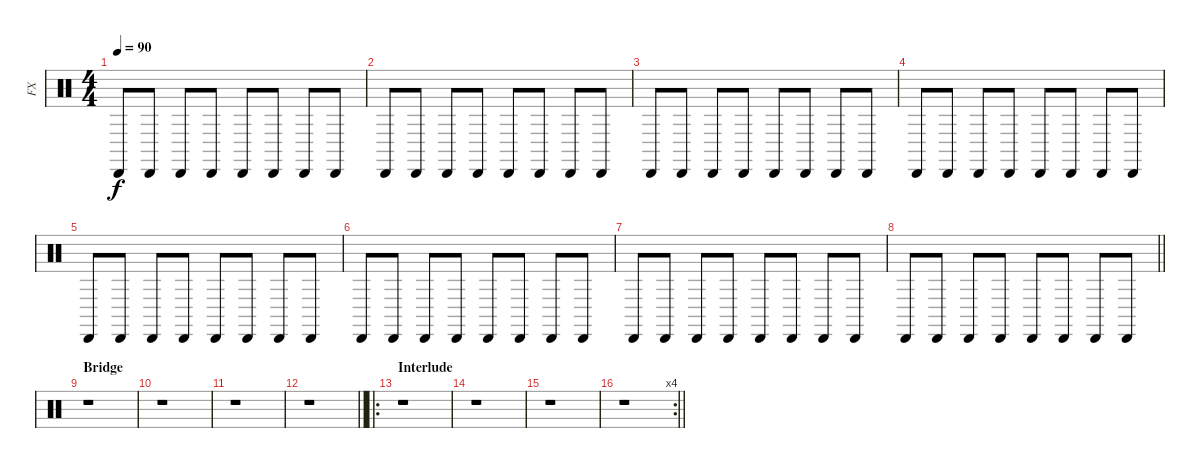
\track ("FX" "FX") {instrument percussion}
\staff {score}
\articulation defaults
\ts (4 4)
\tempo 90
\clef neutral
\ks c "Cabasa (hit)".8{dy f} "Cabasa (hit)".8 "Cabasa (hit)".8 "Cabasa (hit)".8 "Cabasa (hit)".8 "Cabasa (hit)".8 "Cabasa (hit)".8 "Cabasa (hit)".8
|
"Cabasa (hit)".8 "Cabasa (hit)".8 "Cabasa (hit)".8 "Cabasa (hit)".8 "Cabasa (hit)".8 "Cabasa (hit)".8 "Cabasa (hit)".8 "Cabasa (hit)".8 |
"Cabasa (hit)".8 "Cabasa (hit)".8 "Cabasa (hit)".8 "Cabasa (hit)".8 "Cabasa (hit)".8 "Cabasa (hit)".8 "Cabasa (hit)".8 "Cabasa (hit)".8 |
"Cabasa (hit)".8 "Cabasa (hit)".8 "Cabasa (hit)".8 "Cabasa (hit)".8 "Cabasa (hit)".8 "Cabasa (hit)".8 "Cabasa (hit)".8 "Cabasa (hit)".8 |
"Cabasa (hit)".8 "Cabasa (hit)".8 "Cabasa (hit)".8 "Cabasa (hit)".8 "Cabasa (hit)".8 "Cabasa (hit)".8 "Cabasa (hit)".8 "Cabasa (hit)".8 |
"Cabasa (hit)".8 "Cabasa (hit)".8 "Cabasa (hit)".8 "Cabasa (hit)".8 "Cabasa (hit)".8 "Cabasa (hit)".8 "Cabasa (hit)".8 "Cabasa (hit)".8 |
"Cabasa (hit)".8 "Cabasa (hit)".8 "Cabasa (hit)".8 "Cabasa (hit)".8 "Cabasa (hit)".8 "Cabasa (hit)".8 "Cabasa (hit)".8 "Cabasa (hit)".8 |
\barLineRight lightlight "Cabasa (hit)".8 "Cabasa (hit)".8 "Cabasa (hit)".8 "Cabasa (hit)".8 "Cabasa (hit)".8 "Cabasa (hit)".8 "Cabasa (hit)".8 "Cabasa (hit)".8
|
\section ("" "Bridge")
r.1 |
r.1 |
r.1 |
\barLineRight lightlight
r.1 |
\ro
\section ("" "Interlude")
r.1 |
r.1 |
r.1 |
\rc 4
\barLineRight lightlight
r.1
